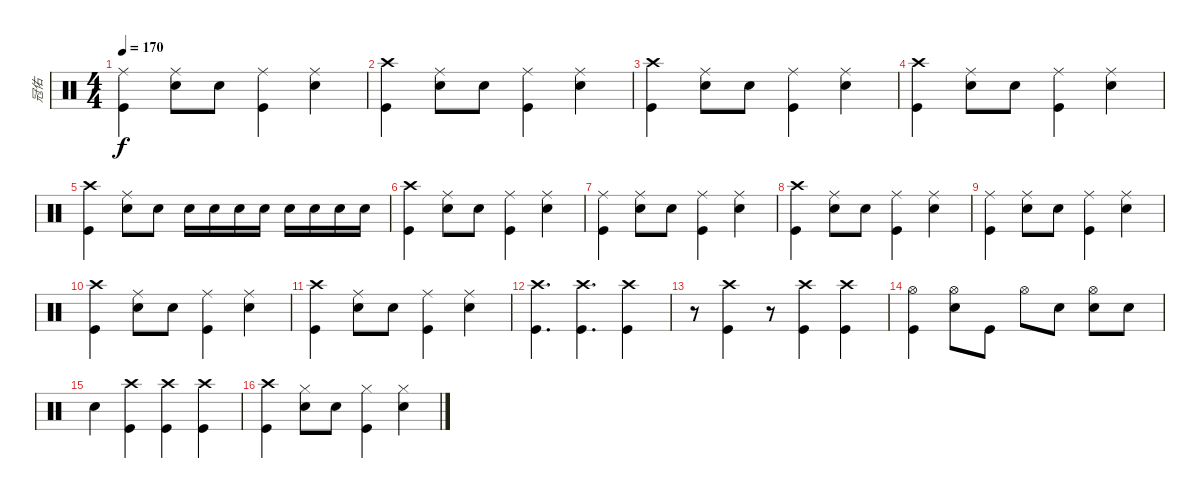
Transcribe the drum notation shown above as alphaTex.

\track ("冠佑" "冠佑") {instrument percussion}
\staff {score}
\articulation defaults
\ts (4 4)
\tempo 170
\clef neutral
\ks c
("Ride (middle)" "Kick (hit)").4{dy f} ("Ride (middle)" "Snare (hit) 2").8 "Snare (hit) 2".8 ("Ride (middle)" "Kick (hit)").4 ("Ride (middle)" "Snare (hit) 2").4 |
("Crash high (hit)" "Kick (hit)").4 ("Ride (middle)" "Snare (hit) 2").8 "Snare (hit) 2".8 ("Ride (middle)" "Kick (hit)").4 ("Ride (middle)" "Snare (hit) 2").4 |
("Crash high (hit)" "Kick (hit)").4 ("Ride (middle)" "Snare (hit) 2").8 "Snare (hit) 2".8 ("Ride (middle)" "Kick (hit)").4 ("Ride (middle)" "Snare (hit) 2").4 |
("Crash high (hit)" "Kick (hit)").4 ("Ride (middle)" "Snare (hit) 2").8 "Snare (hit) 2".8 ("Ride (middle)" "Kick (hit)").4 ("Ride (middle)" "Snare (hit) 2").4 |
("Crash high (hit)" "Kick (hit)").4 ("Ride (middle)" "Snare (hit) 2").8 "Snare (hit) 2".8 "Snare (hit) 2".16 "Snare (hit) 2".16 "Snare (hit) 2".16 "Snare (hit) 2".16 "Snare (hit) 2".16 "Snare (hit) 2".16 "Snare (hit) 2".16 "Snare (hit) 2".16 |
("Crash high (hit)" "Kick (hit)").4 ("Ride (middle)" "Snare (hit) 2").8 "Snare (hit) 2".8 ("Ride (middle)" "Kick (hit)").4 ("Ride (middle)" "Snare (hit) 2").4 |
("Ride (middle)" "Kick (hit)").4 ("Ride (middle)" "Snare (hit) 2").8 "Snare (hit) 2".8 ("Ride (middle)" "Kick (hit)").4 ("Ride (middle)" "Snare (hit) 2").4 |
("Crash high (hit)" "Kick (hit)").4 ("Ride (middle)" "Snare (hit) 2").8 "Snare (hit) 2".8 ("Ride (middle)" "Kick (hit)").4 ("Ride (middle)" "Snare (hit) 2").4 |
("Ride (middle)" "Kick (hit)").4 ("Ride (middle)" "Snare (hit) 2").8 "Snare (hit) 2".8 ("Ride (middle)" "Kick (hit)").4 ("Ride (middle)" "Snare (hit) 2").4 |
("Crash high (hit)" "Kick (hit)").4 ("Ride (middle)" "Snare (hit) 2").8 "Snare (hit) 2".8 ("Ride (middle)" "Kick (hit)").4 ("Ride (middle)" "Snare (hit) 2").4 |
("Crash high (hit)" "Kick (hit)").4 ("Ride (middle)" "Snare (hit) 2").8 "Snare (hit) 2".8 ("Ride (middle)" "Kick (hit)").4 ("Ride (middle)" "Snare (hit) 2").4 |
("Crash high (hit)" "Kick (hit)").4{d} ("Crash high (hit)" "Kick (hit)").4{d} ("Crash high (hit)" "Kick (hit)").4 |
r.8 ("Crash high (hit)" "Kick (hit)").4 r.8 ("Crash high (hit)" "Kick (hit)").4 ("Crash high (hit)" "Kick (hit)").4 |
("Hi-Hat (open)" "Kick (hit)").4 ("Hi-Hat (open)" "Snare (hit) 2").8 "Kick (hit)".8 "Hi-Hat (open)".8 "Snare (hit) 2".8 ("Hi-Hat (open)" "Snare (hit) 2").8 "Snare (hit) 2".8 |
"Snare (hit) 2".4 ("Crash high (hit)" "Kick (hit)").4 ("Crash high (hit)" "Kick (hit)").4 ("Crash high (hit)" "Kick (hit)").4 |
("Crash high (hit)" "Kick (hit)").4 ("Hi-Hat (closed)" "Snare (hit) 2").8 "Snare (hit) 2".8 ("Hi-Hat (closed)" "Kick (hit)").4 ("Hi-Hat (closed)" "Snare (hit) 2").4
